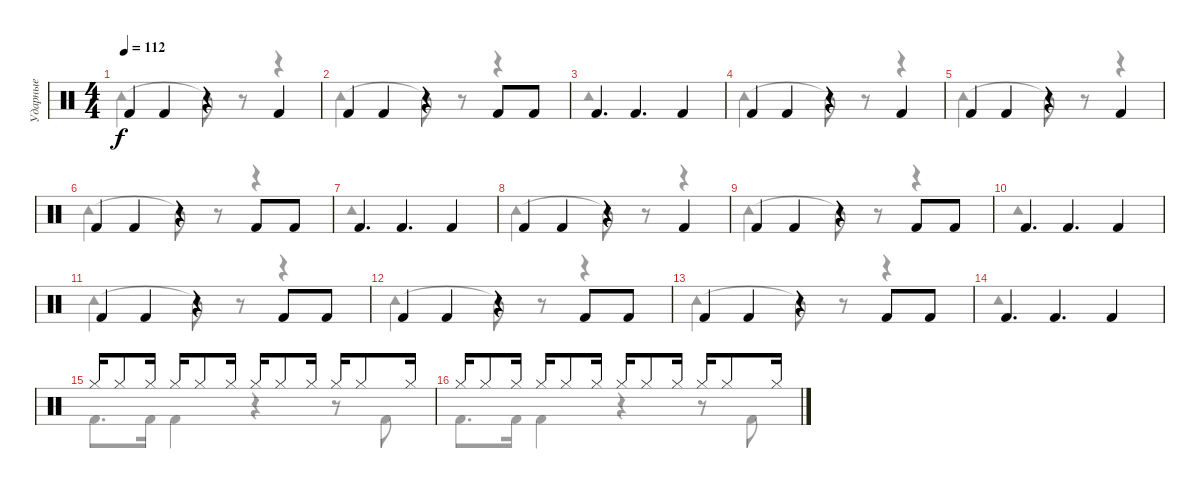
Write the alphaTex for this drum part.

\track ("Ударные" "Ударные") {instrument percussion}
\staff {score}
\articulation defaults
\voice
\ts (4 4)
\tempo 112
\clef neutral
\ks c "Kick (hit) 2".4{dy f} "Kick (hit) 2".4
r.4 "Kick (hit) 2".4 |
"Kick (hit) 2".4 "Kick (hit) 2".4 r.4 "Kick (hit) 2".8 "Kick (hit) 2".8 |
"Kick (hit) 2".4{d} "Kick (hit) 2".4{d} "Kick (hit) 2".4 |
"Kick (hit) 2".4 "Kick (hit) 2".4 r.4 "Kick (hit) 2".4 |
"Kick (hit) 2".4 "Kick (hit) 2".4 r.4 "Kick (hit) 2".4 |
"Kick (hit) 2".4 "Kick (hit) 2".4 r.4 "Kick (hit) 2".8 "Kick (hit) 2".8 |
"Kick (hit) 2".4{d} "Kick (hit) 2".4{d} "Kick (hit) 2".4 |
"Kick (hit) 2".4 "Kick (hit) 2".4 r.4 "Kick (hit) 2".4 |
"Kick (hit) 2".4 "Kick (hit) 2".4 r.4 "Kick (hit) 2".8 "Kick (hit) 2".8 |
"Kick (hit) 2".4{d} "Kick (hit) 2".4{d} "Kick (hit) 2".4 |
"Kick (hit) 2".4 "Kick (hit) 2".4 r.4 "Kick (hit) 2".8 "Kick (hit) 2".8 |
"Kick (hit) 2".4 "Kick (hit) 2".4 r.4 "Kick (hit) 2".8 "Kick (hit) 2".8 |
"Kick (hit) 2".4 "Kick (hit) 2".4 r.4 "Kick (hit) 2".8 "Kick (hit) 2".8 |
"Kick (hit) 2".4{d} "Kick (hit) 2".4{d} "Kick (hit) 2".4 |
"Hi-Hat (closed)".16 "Hi-Hat (closed)".8 "Hi-Hat (closed)".16 "Hi-Hat (closed)".16 "Hi-Hat (closed)".8 "Hi-Hat (closed)".16 "Hi-Hat (closed)".16 "Hi-Hat (closed)".8 "Hi-Hat (closed)".16 "Hi-Hat (closed)".16 "Hi-Hat (closed)".8 "Hi-Hat (closed)".16 |
"Hi-Hat (closed)".16 "Hi-Hat (closed)".8 "Hi-Hat (closed)".16 "Hi-Hat (closed)".16 "Hi-Hat (closed)".8 "Hi-Hat (closed)".16 "Hi-Hat (closed)".16 "Hi-Hat (closed)".8 "Hi-Hat (closed)".16 "Hi-Hat (closed)".16 "Hi-Hat (closed)".8 "Hi-Hat (closed)".16
\voice
\clef neutral
\ottava regular
\simile none
\ks c "Tambourine (hit)".2{dy f} "Tambourine (hit)"{t}.8
r.8 r.4 |
"Tambourine (hit)".2 "Tambourine (hit)"{t}.8 r.8 r.4 |
"Tambourine (hit)".1 |
"Tambourine (hit)".2 "Tambourine (hit)"{t}.8 r.8 r.4 |
"Tambourine (hit)".2 "Tambourine (hit)"{t}.8 r.8 r.4 |
"Tambourine (hit)".2 "Tambourine (hit)"{t}.8 r.8 r.4 |
"Tambourine (hit)".1 |
"Tambourine (hit)".2 "Tambourine (hit)"{t}.8 r.8 r.4 |
"Tambourine (hit)".2 "Tambourine (hit)"{t}.8 r.8 r.4 |
"Tambourine (hit)".1 |
"Tambourine (hit)".2 "Tambourine (hit)"{t}.8 r.8 r.4 |
"Tambourine (hit)".2 "Tambourine (hit)"{t}.8 r.8 r.4 |
"Tambourine (hit)".2 "Tambourine (hit)"{t}.8 r.8 r.4 |
"Tambourine (hit)".1 |
"Kick (hit) 2".8{d} "Kick (hit) 2".16 "Kick (hit) 2".4 r.4 r.8 "Kick (hit) 2".8 |
"Kick (hit) 2".8{d} "Kick (hit) 2".16 "Kick (hit) 2".4 r.4 r.8 "Kick (hit) 2".8
